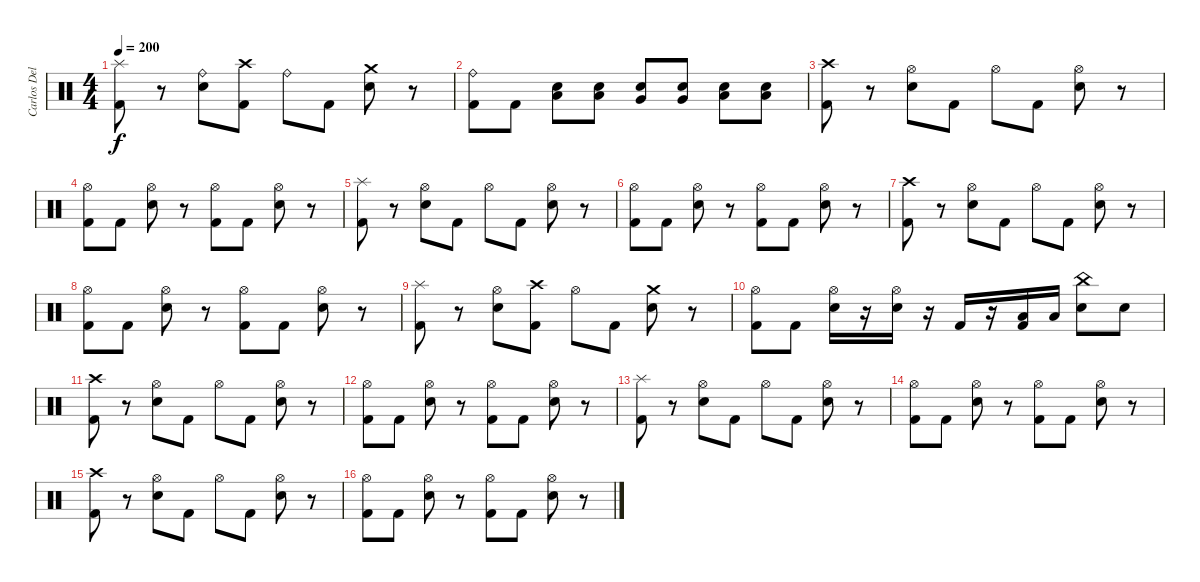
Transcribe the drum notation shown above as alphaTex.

\track ("Carlos Delgado" "Carlos Del") {instrument percussion}
\staff {score}
\articulation defaults
\ts (4 4)
\tempo 200
\clef neutral
\ks c
("Splash (hit)" "Kick (hit) 2").8{dy f} r.8 ("Ride (bell)" "Electric Snare (hit)").8 ("Crash high (hit)" "Kick (hit) 2").8 "Ride (bell)".8 "Kick (hit) 2".8 ("Electric Snare (hit)" "Crash medium (hit)").8 r.8 |
("Ride (bell)" "Kick (hit) 2").8 "Kick (hit) 2".8 ("Low Tom (hit)" "Electric Snare (hit)").8 ("Low Tom (hit)" "Electric Snare (hit)").8 ("Very Low Tom (hit)" "Electric Snare (hit)").8 ("Very Low Tom (hit)" "Electric Snare (hit)").8 ("Low Floor Tom (hit)" "Electric Snare (hit)").8 ("Low Floor Tom (hit)" "Electric Snare (hit)").8 |
("Crash high (hit)" "Kick (hit) 2").8 r.8 ("Hi-Hat (open)" "Electric Snare (hit)").8 "Kick (hit) 2".8 "Hi-Hat (open)".8 "Kick (hit) 2".8 ("Hi-Hat (open)" "Electric Snare (hit)").8 r.8 |
("Hi-Hat (open)" "Kick (hit) 2").8 "Kick (hit) 2".8 ("Hi-Hat (open)" "Electric Snare (hit)").8 r.8 ("Hi-Hat (open)" "Kick (hit) 2").8 "Kick (hit) 2".8 ("Hi-Hat (open)" "Electric Snare (hit)").8 r.8 |
("Splash (hit)" "Kick (hit) 2").8 r.8 ("Hi-Hat (open)" "Electric Snare (hit)").8 "Kick (hit) 2".8 "Hi-Hat (open)".8 "Kick (hit) 2".8 ("Hi-Hat (open)" "Electric Snare (hit)").8 r.8 |
("Hi-Hat (open)" "Kick (hit) 2").8 "Kick (hit) 2".8 ("Hi-Hat (open)" "Electric Snare (hit)").8 r.8 ("Hi-Hat (open)" "Kick (hit) 2").8 "Kick (hit) 2".8 ("Hi-Hat (open)" "Electric Snare (hit)").8 r.8 |
("Crash high (hit)" "Kick (hit) 2").8 r.8 ("Hi-Hat (open)" "Electric Snare (hit)").8 "Kick (hit) 2".8 "Hi-Hat (open)".8 "Kick (hit) 2".8 ("Hi-Hat (open)" "Electric Snare (hit)").8 r.8 |
("Hi-Hat (open)" "Kick (hit) 2").8 "Kick (hit) 2".8 ("Hi-Hat (open)" "Electric Snare (hit)").8 r.8 ("Hi-Hat (open)" "Kick (hit) 2").8 "Kick (hit) 2".8 ("Hi-Hat (open)" "Electric Snare (hit)").8 r.8 |
("Splash (hit)" "Kick (hit) 2").8 r.8 ("Hi-Hat (open)" "Electric Snare (hit)").8 ("Kick (hit) 2" "Crash high (hit)").8 "Hi-Hat (open)".8 "Kick (hit) 2".8 ("Electric Snare (hit)" "Crash medium (hit)").8 r.8 |
("Hi-Hat (open)" "Kick (hit) 2").8 "Kick (hit) 2".8 ("Electric Snare (hit)" "Hi-Hat (open)").16 r.16 ("Hi-Hat (open)" "Electric Snare (hit)").16 r.16 "Kick (hit) 2".16 r.16 ("Kick (hit) 2" "Low Tom (hit)").16 "Low Tom (hit)".16 ("China (hit)" "Electric Snare (hit)").8 "Electric Snare (hit)".8 |
("Crash high (hit)" "Kick (hit) 2").8 r.8 ("Electric Snare (hit)" "Hi-Hat (open)").8 "Kick (hit) 2".8 "Hi-Hat (open)".8 "Kick (hit) 2".8 ("Hi-Hat (open)" "Electric Snare (hit)").8 r.8 |
("Kick (hit) 2" "Hi-Hat (open)").8 "Kick (hit) 2".8 ("Electric Snare (hit)" "Hi-Hat (open)").8 r.8 ("Hi-Hat (open)" "Kick (hit) 2").8 "Kick (hit) 2".8 ("Hi-Hat (open)" "Electric Snare (hit)").8 r.8 |
("Kick (hit) 2" "Splash (hit)").8 r.8 ("Hi-Hat (open)" "Electric Snare (hit)").8 "Kick (hit) 2".8 "Hi-Hat (open)".8 "Kick (hit) 2".8 ("Hi-Hat (open)" "Electric Snare (hit)").8 r.8 |
("Kick (hit) 2" "Hi-Hat (open)").8 "Kick (hit) 2".8 ("Electric Snare (hit)" "Hi-Hat (open)").8 r.8 ("Hi-Hat (open)" "Kick (hit) 2").8 "Kick (hit) 2".8 ("Electric Snare (hit)" "Hi-Hat (open)").8 r.8 |
("Kick (hit) 2" "Crash high (hit)").8 r.8 ("Hi-Hat (open)" "Electric Snare (hit)").8 "Kick (hit) 2".8 "Hi-Hat (open)".8 "Kick (hit) 2".8 ("Electric Snare (hit)" "Hi-Hat (open)").8 r.8 |
("Kick (hit) 2" "Hi-Hat (open)").8 "Kick (hit) 2".8 ("Electric Snare (hit)" "Hi-Hat (open)").8 r.8 ("Hi-Hat (open)" "Kick (hit) 2").8 "Kick (hit) 2".8 ("Hi-Hat (open)" "Electric Snare (hit)").8 r.8
